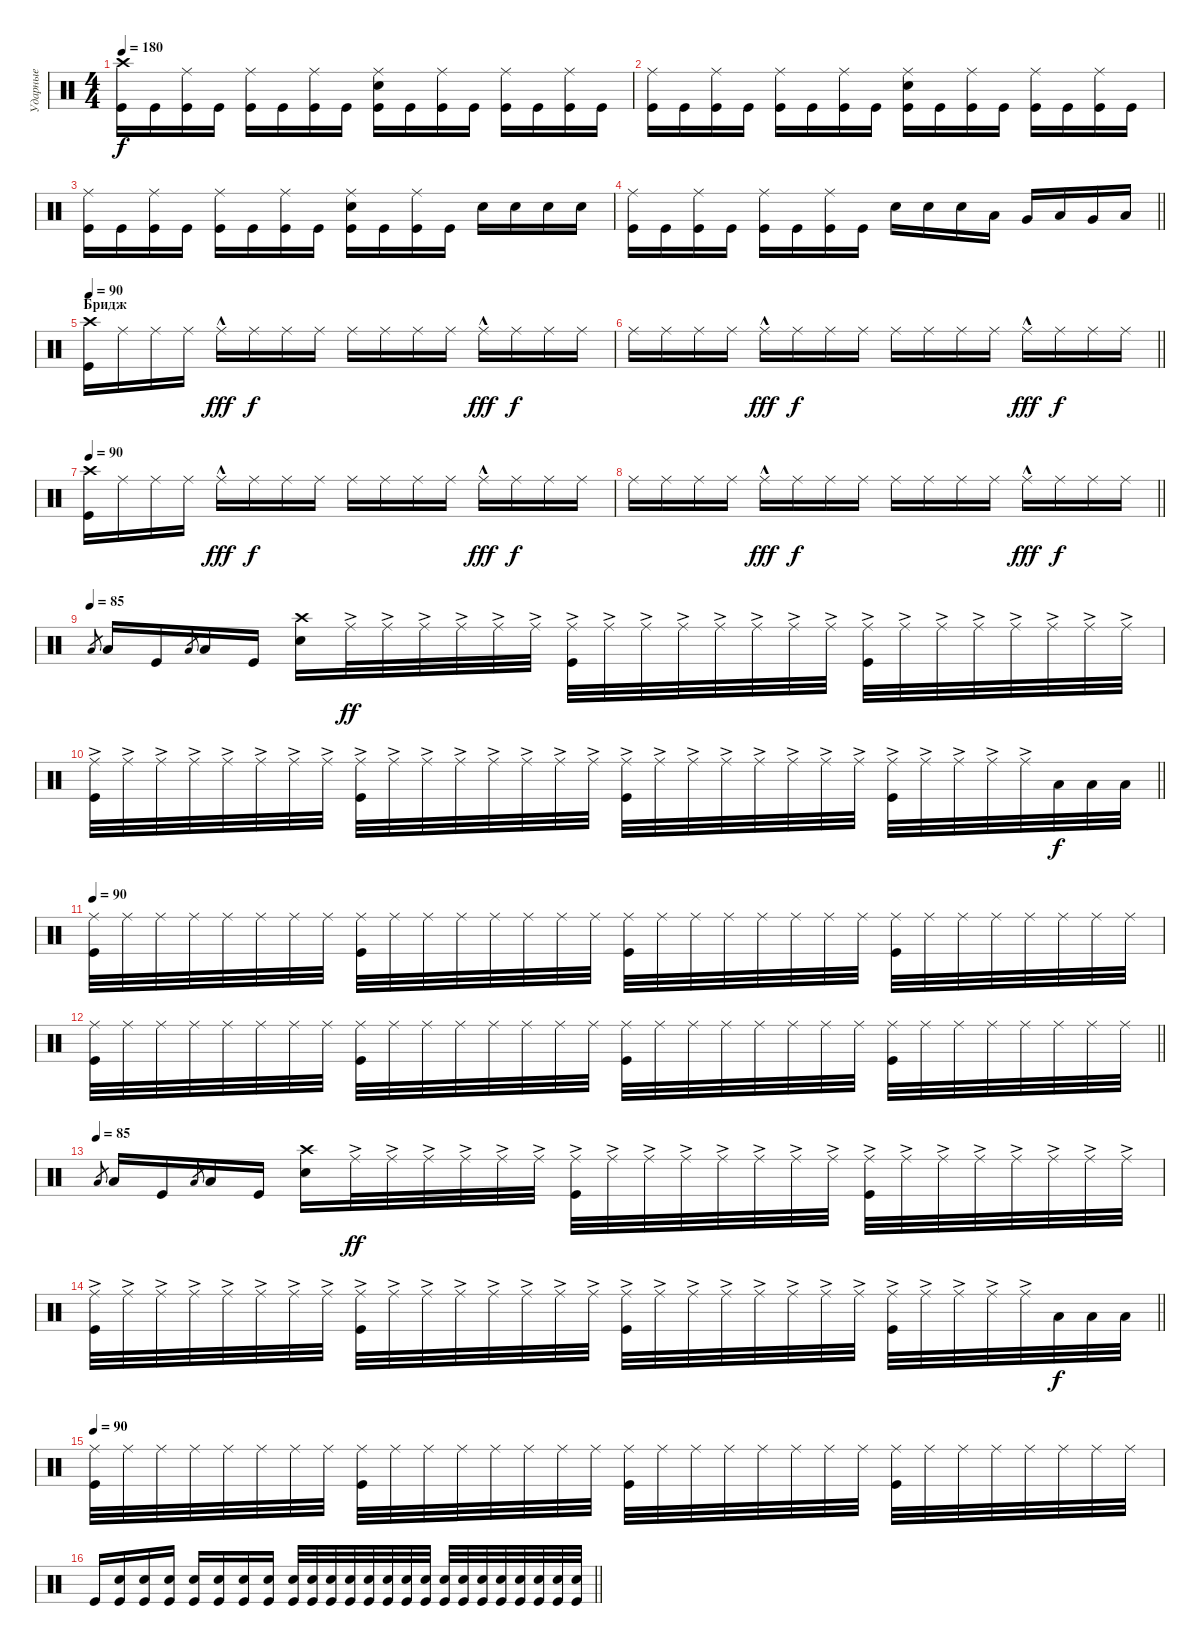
\track ("Ударные" "Ударные") {instrument percussion}
\staff {score}
\articulation defaults
\ts (4 4)
\tempo 180
\clef neutral
\ks c
("Kick (hit)" "Crash high (hit)").16{dy f} "Kick (hit)".16 ("Kick (hit)" "Ride (middle)").16 "Kick (hit)".16 ("Kick (hit)" "Ride (middle)").16 "Kick (hit)".16 ("Kick (hit)" "Ride (middle)").16 "Kick (hit)".16 ("Kick (hit)" "Ride (middle)" "Snare (hit) 2").16 "Kick (hit)".16 ("Kick (hit)" "Ride (middle)").16 "Kick (hit)".16 ("Kick (hit)" "Ride (middle)").16 "Kick (hit)".16 ("Kick (hit)" "Ride (middle)").16 "Kick (hit)".16 |
("Kick (hit)" "Ride (middle)").16 "Kick (hit)".16 ("Kick (hit)" "Ride (middle)").16 "Kick (hit)".16 ("Kick (hit)" "Ride (middle)").16 "Kick (hit)".16 ("Kick (hit)" "Ride (middle)").16 "Kick (hit)".16 ("Kick (hit)" "Ride (middle)" "Snare (hit) 2").16 "Kick (hit)".16 ("Kick (hit)" "Ride (middle)").16 "Kick (hit)".16 ("Kick (hit)" "Ride (middle)").16 "Kick (hit)".16 ("Kick (hit)" "Ride (middle)").16 "Kick (hit)".16 |
("Kick (hit)" "Ride (middle)").16 "Kick (hit)".16 ("Kick (hit)" "Ride (middle)").16 "Kick (hit)".16 ("Kick (hit)" "Ride (middle)").16 "Kick (hit)".16 ("Kick (hit)" "Ride (middle)").16 "Kick (hit)".16 ("Kick (hit)" "Ride (middle)" "Snare (hit) 2").16 "Kick (hit)".16 ("Kick (hit)" "Ride (middle)").16 "Kick (hit)".16 "Snare (hit) 2".16 "Snare (hit) 2".16 "Snare (hit) 2".16 "Snare (hit) 2".16 |
\barLineRight lightlight
("Kick (hit)" "Ride (middle)").16 "Kick (hit)".16 ("Kick (hit)" "Ride (middle)").16 "Kick (hit)".16 ("Kick (hit)" "Ride (middle)").16 "Kick (hit)".16 ("Kick (hit)" "Ride (middle)").16 "Kick (hit)".16 "Snare (hit) 2".16 "Snare (hit) 2".16 "Snare (hit) 2".16 "Low Tom (hit)".16 "Very Low Tom (hit)".16 "Low Tom (hit)".16 "Very Low Tom (hit)".16 "Low Floor Tom (hit)".16 |
\section ("" "Бридж")
\tempo 90
("Kick (hit)" "Crash high (hit)").16 "Ride (middle)".16 "Ride (middle)".16 "Ride (middle)".16 "Ride (middle)"{hac}.16{dy fff} "Ride (middle)".16{dy f} "Ride (middle)".16 "Ride (middle)".16 "Ride (middle)".16 "Ride (middle)".16 "Ride (middle)".16 "Ride (middle)".16 "Ride (middle)"{hac}.16{dy fff} "Ride (middle)".16{dy f} "Ride (middle)".16 "Ride (middle)".16 |
\barLineRight lightlight "Ride (middle)".16 "Ride (middle)".16 "Ride (middle)".16 "Ride (middle)".16 "Ride (middle)"{hac}.16{dy fff} "Ride (middle)".16{dy f} "Ride (middle)".16 "Ride (middle)".16 "Ride (middle)".16 "Ride (middle)".16 "Ride (middle)".16 "Ride (middle)".16 "Ride (middle)"{hac}.16{dy fff} "Ride (middle)".16{dy f} "Ride (middle)".16 "Ride (middle)".16
|
\section ("" "")
\tempo 90
("Kick (hit)" "Crash high (hit)").16 "Ride (middle)".16 "Ride (middle)".16 "Ride (middle)".16 "Ride (middle)"{hac}.16{dy fff} "Ride (middle)".16{dy f} "Ride (middle)".16 "Ride (middle)".16 "Ride (middle)".16 "Ride (middle)".16 "Ride (middle)".16 "Ride (middle)".16 "Ride (middle)"{hac}.16{dy fff} "Ride (middle)".16{dy f} "Ride (middle)".16 "Ride (middle)".16 |
\barLineRight lightlight "Ride (middle)".16 "Ride (middle)".16 "Ride (middle)".16 "Ride (middle)".16 "Ride (middle)"{hac}.16{dy fff} "Ride (middle)".16{dy f} "Ride (middle)".16 "Ride (middle)".16 "Ride (middle)".16 "Ride (middle)".16 "Ride (middle)".16 "Ride (middle)".16 "Ride (middle)"{hac}.16{dy fff} "Ride (middle)".16{dy f} "Ride (middle)".16 "Ride (middle)".16
|
\tempo 90
\tempo (85)
"Low Tom (hit)".8{gr} "Low Tom (hit)".16 "Kick (hit)".16 "Low Tom (hit)".8{gr} "Low Tom (hit)".16 "Kick (hit)".16 ("Snare (hit) 2" "Crash high (hit)").16 "Ride (middle)"{ac}.32{dy ff} "Ride (middle)"{ac}.32 "Ride (middle)"{ac}.32 "Ride (middle)"{ac}.32 "Ride (middle)"{ac}.32 "Ride (middle)"{ac}.32 ("Ride (middle)"{ac} "Kick (hit)").32 "Ride (middle)"{ac}.32 "Ride (middle)"{ac}.32 "Ride (middle)"{ac}.32 "Ride (middle)"{ac}.32 "Ride (middle)"{ac}.32 "Ride (middle)"{ac}.32 "Ride (middle)"{ac}.32 ("Ride (middle)"{ac} "Kick (hit)").32 "Ride (middle)"{ac}.32 "Ride (middle)"{ac}.32 "Ride (middle)"{ac}.32 "Ride (middle)"{ac}.32 "Ride (middle)"{ac}.32 "Ride (middle)"{ac}.32 "Ride (middle)"{ac}.32 |
\barLineRight lightlight
("Ride (middle)"{ac} "Kick (hit)").32 "Ride (middle)"{ac}.32 "Ride (middle)"{ac}.32 "Ride (middle)"{ac}.32 "Ride (middle)"{ac}.32 "Ride (middle)"{ac}.32 "Ride (middle)"{ac}.32 "Ride (middle)"{ac}.32 ("Ride (middle)"{ac} "Kick (hit)").32 "Ride (middle)"{ac}.32 "Ride (middle)"{ac}.32 "Ride (middle)"{ac}.32 "Ride (middle)"{ac}.32 "Ride (middle)"{ac}.32 "Ride (middle)"{ac}.32 "Ride (middle)"{ac}.32 ("Ride (middle)"{ac} "Kick (hit)").32 "Ride (middle)"{ac}.32 "Ride (middle)"{ac}.32 "Ride (middle)"{ac}.32 "Ride (middle)"{ac}.32 "Ride (middle)"{ac}.32 "Ride (middle)"{ac}.32 "Ride (middle)"{ac}.32 ("Ride (middle)"{ac} "Kick (hit)").32 "Ride (middle)"{ac}.32 "Ride (middle)"{ac}.32 "Ride (middle)"{ac}.32 "Ride (middle)"{ac}.32 "Low Tom (hit)".32{dy f} "Low Tom (hit)".32 "Low Tom (hit)".32 |
\tempo 90
("Kick (hit)" "Ride (middle)").32 "Ride (middle)".32 "Ride (middle)".32 "Ride (middle)".32 "Ride (middle)".32 "Ride (middle)".32 "Ride (middle)".32 "Ride (middle)".32 ("Kick (hit)" "Ride (middle)").32 "Ride (middle)".32 "Ride (middle)".32 "Ride (middle)".32 "Ride (middle)".32 "Ride (middle)".32 "Ride (middle)".32 "Ride (middle)".32 ("Ride (middle)" "Kick (hit)").32 "Ride (middle)".32 "Ride (middle)".32 "Ride (middle)".32 "Ride (middle)".32 "Ride (middle)".32 "Ride (middle)".32 "Ride (middle)".32 ("Ride (middle)" "Kick (hit)").32 "Ride (middle)".32 "Ride (middle)".32 "Ride (middle)".32 "Ride (middle)".32 "Ride (middle)".32 "Ride (middle)".32 "Ride (middle)".32 |
\barLineRight lightlight
("Kick (hit)" "Ride (middle)").32 "Ride (middle)".32 "Ride (middle)".32 "Ride (middle)".32 "Ride (middle)".32 "Ride (middle)".32 "Ride (middle)".32 "Ride (middle)".32 ("Kick (hit)" "Ride (middle)").32 "Ride (middle)".32 "Ride (middle)".32 "Ride (middle)".32 "Ride (middle)".32 "Ride (middle)".32 "Ride (middle)".32 "Ride (middle)".32 ("Ride (middle)" "Kick (hit)").32 "Ride (middle)".32 "Ride (middle)".32 "Ride (middle)".32 "Ride (middle)".32 "Ride (middle)".32 "Ride (middle)".32 "Ride (middle)".32 ("Ride (middle)" "Kick (hit)").32 "Ride (middle)".32 "Ride (middle)".32 "Ride (middle)".32 "Ride (middle)".32 "Ride (middle)".32 "Ride (middle)".32 "Ride (middle)".32 |
\tempo 90
\tempo (85)
"Low Tom (hit)".8{gr} "Low Tom (hit)".16 "Kick (hit)".16 "Low Tom (hit)".8{gr} "Low Tom (hit)".16 "Kick (hit)".16 ("Snare (hit) 2" "Crash high (hit)").16 "Ride (middle)"{ac}.32{dy ff} "Ride (middle)"{ac}.32 "Ride (middle)"{ac}.32 "Ride (middle)"{ac}.32 "Ride (middle)"{ac}.32 "Ride (middle)"{ac}.32 ("Ride (middle)"{ac} "Kick (hit)").32 "Ride (middle)"{ac}.32 "Ride (middle)"{ac}.32 "Ride (middle)"{ac}.32 "Ride (middle)"{ac}.32 "Ride (middle)"{ac}.32 "Ride (middle)"{ac}.32 "Ride (middle)"{ac}.32 ("Ride (middle)"{ac} "Kick (hit)").32 "Ride (middle)"{ac}.32 "Ride (middle)"{ac}.32 "Ride (middle)"{ac}.32 "Ride (middle)"{ac}.32 "Ride (middle)"{ac}.32 "Ride (middle)"{ac}.32 "Ride (middle)"{ac}.32 |
\barLineRight lightlight
("Ride (middle)"{ac} "Kick (hit)").32 "Ride (middle)"{ac}.32 "Ride (middle)"{ac}.32 "Ride (middle)"{ac}.32 "Ride (middle)"{ac}.32 "Ride (middle)"{ac}.32 "Ride (middle)"{ac}.32 "Ride (middle)"{ac}.32 ("Ride (middle)"{ac} "Kick (hit)").32 "Ride (middle)"{ac}.32 "Ride (middle)"{ac}.32 "Ride (middle)"{ac}.32 "Ride (middle)"{ac}.32 "Ride (middle)"{ac}.32 "Ride (middle)"{ac}.32 "Ride (middle)"{ac}.32 ("Ride (middle)"{ac} "Kick (hit)").32 "Ride (middle)"{ac}.32 "Ride (middle)"{ac}.32 "Ride (middle)"{ac}.32 "Ride (middle)"{ac}.32 "Ride (middle)"{ac}.32 "Ride (middle)"{ac}.32 "Ride (middle)"{ac}.32 ("Ride (middle)"{ac} "Kick (hit)").32 "Ride (middle)"{ac}.32 "Ride (middle)"{ac}.32 "Ride (middle)"{ac}.32 "Ride (middle)"{ac}.32 "Low Tom (hit)".32{dy f} "Low Tom (hit)".32 "Low Tom (hit)".32 |
\tempo 90
("Kick (hit)" "Ride (middle)").32 "Ride (middle)".32 "Ride (middle)".32 "Ride (middle)".32 "Ride (middle)".32 "Ride (middle)".32 "Ride (middle)".32 "Ride (middle)".32 ("Kick (hit)" "Ride (middle)").32 "Ride (middle)".32 "Ride (middle)".32 "Ride (middle)".32 "Ride (middle)".32 "Ride (middle)".32 "Ride (middle)".32 "Ride (middle)".32 ("Ride (middle)" "Kick (hit)").32 "Ride (middle)".32 "Ride (middle)".32 "Ride (middle)".32 "Ride (middle)".32 "Ride (middle)".32 "Ride (middle)".32 "Ride (middle)".32 ("Ride (middle)" "Kick (hit)").32 "Ride (middle)".32 "Ride (middle)".32 "Ride (middle)".32 "Ride (middle)".32 "Ride (middle)".32 "Ride (middle)".32 "Ride (middle)".32 |
\barLineRight lightlight "Kick (hit)".16
("Snare (hit) 2" "Kick (hit)").16 ("Kick (hit)" "Snare (hit) 2").16 ("Kick (hit)" "Snare (hit) 2").16 ("Kick (hit)" "Snare (hit) 2").16 ("Kick (hit)" "Snare (hit) 2").16 ("Kick (hit)" "Snare (hit) 2").16 ("Kick (hit)" "Snare (hit) 2").16 ("Kick (hit)" "Snare (hit) 2").32 ("Kick (hit)" "Snare (hit) 2").32 ("Kick (hit)" "Snare (hit) 2").32 ("Kick (hit)" "Snare (hit) 2").32 ("Kick (hit)" "Snare (hit) 2").32 ("Kick (hit)" "Snare (hit) 2").32 ("Kick (hit)" "Snare (hit) 2").32 ("Kick (hit)" "Snare (hit) 2").32 ("Kick (hit)" "Snare (hit) 2").32 ("Kick (hit)" "Snare (hit) 2").32 ("Kick (hit)" "Snare (hit) 2").32 ("Kick (hit)" "Snare (hit) 2").32 ("Kick (hit)" "Snare (hit) 2").32 ("Kick (hit)" "Snare (hit) 2").32 ("Kick (hit)" "Snare (hit) 2").32 ("Kick (hit)" "Snare (hit) 2").32
